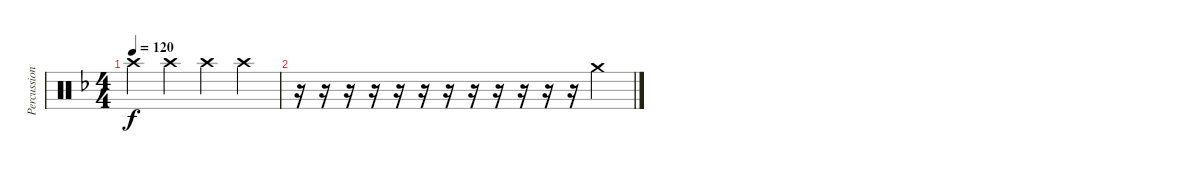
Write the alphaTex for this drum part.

\track ("Percussion" "Percussion") {instrument percussion}
\staff {score}
\articulation defaults
\ts (4 4)
\tempo 120
\clef neutral
\ks f "Crash high (hit)".4{dy f} "Crash high (hit)".4 "Crash high (hit)".4 "Crash high (hit)".4
|
r.16 r.16 r.16 r.16 r.16 r.16 r.16 r.16 r.16 r.16 r.16 r.16 "Crash medium (hit)".4
